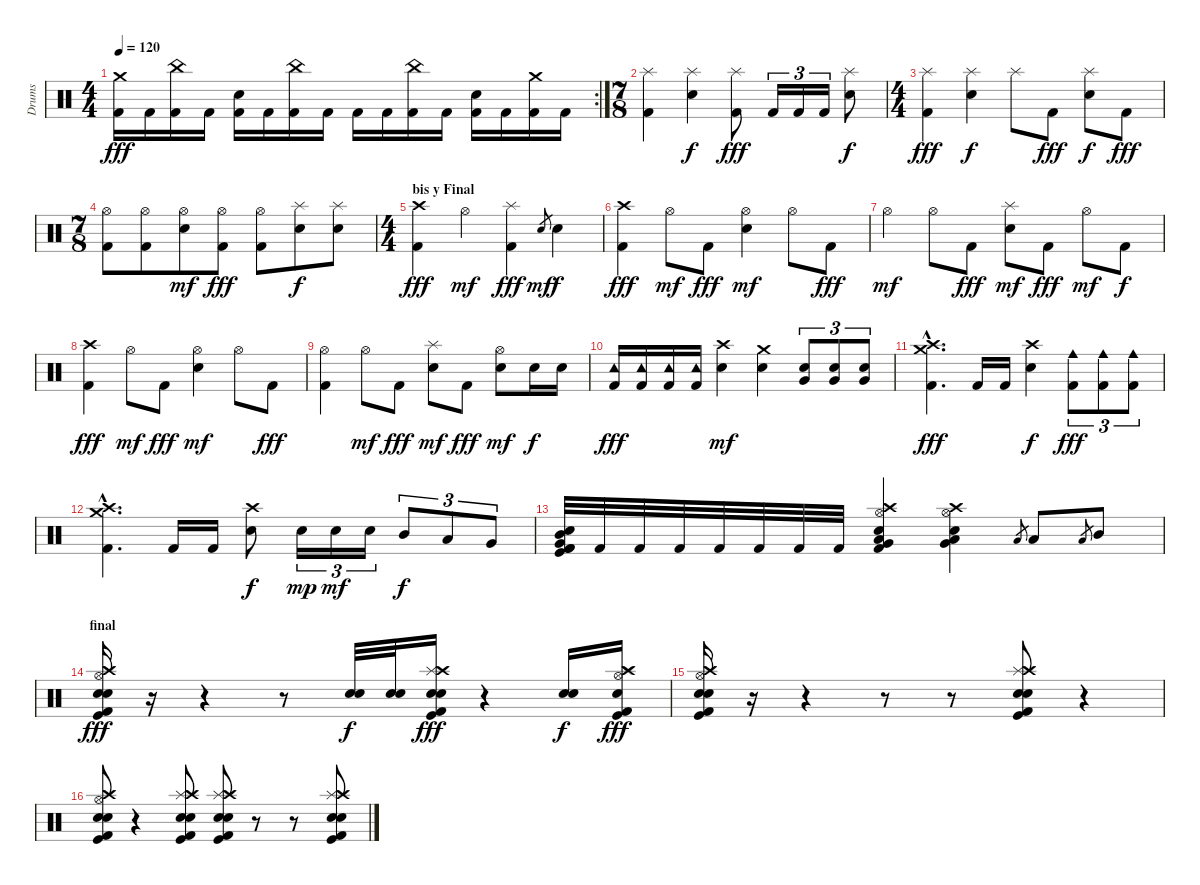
\track ("Drums" "Drums") {instrument percussion}
\staff {score}
\articulation defaults
\rc 2
\ts (4 4)
\tempo 120
\clef neutral
\ks c
("Crash medium (hit)" "Kick (hit) 2").16{dy fff} "Kick (hit) 2".16 ("China (hit)" "Kick (hit) 2").16 "Kick (hit) 2".16 ("Electric Snare (hit)" "Kick (hit) 2").16 "Kick (hit) 2".16 ("China (hit)" "Kick (hit) 2").16 "Kick (hit) 2".16 "Kick (hit) 2".16 "Kick (hit) 2".16 ("China (hit)" "Kick (hit) 2").16 "Kick (hit) 2".16 ("Electric Snare (hit)" "Kick (hit) 2").16 "Kick (hit) 2".16 ("Crash medium (hit)" "Kick (hit) 2").16 "Kick (hit) 2".16 |
\ts (7 8)
("Splash (hit)" "Kick (hit) 2").4 ("Splash (hit)" "Electric Snare (hit)").4{dy f} ("Splash (hit)" "Kick (hit) 2").8{dy fff} "Kick (hit) 2".16{tu (3 2)} "Kick (hit) 2".16{tu (3 2)} "Kick (hit) 2".16{tu (3 2)} ("Splash (hit)" "Electric Snare (hit)").8{dy f} |
\ts (4 4)
("Splash (hit)" "Kick (hit) 2").4{dy fff} ("Splash (hit)" "Electric Snare (hit)").4{dy f} "Splash (hit)".8 "Kick (hit) 2".8{dy fff} ("Splash (hit)" "Electric Snare (hit)").8{dy f} "Kick (hit) 2".8{dy fff} |
\ts (7 8)
("Hi-Hat (open)" "Kick (hit) 2").8 ("Hi-Hat (open)" "Kick (hit) 2").8 ("Hi-Hat (open)" "Electric Snare (hit)").8{dy mf} ("Hi-Hat (open)" "Kick (hit) 2").8{dy fff} ("Hi-Hat (open)" "Kick (hit) 2").8 ("Splash (hit)" "Electric Snare (hit)").8{dy f} ("Splash (hit)" "Electric Snare (hit)").8 |
\ts (4 4)
\section ("" "bis y Final")
("Crash high (hit)" "Kick (hit) 2").4{dy fff} "Hi-Hat (open)".4{dy mf} ("Splash (hit)" "Kick (hit) 2").4{dy fff} "Electric Snare (hit)".8{gr dy mf} "Electric Snare (hit)".4{dy f} |
("Crash high (hit)" "Kick (hit) 2").4{dy fff} "Hi-Hat (open)".8{dy mf} "Kick (hit) 2".8{dy fff} ("Hi-Hat (open)" "Electric Snare (hit)").4{dy mf} "Hi-Hat (open)".8 "Kick (hit) 2".8{dy fff} |
"Hi-Hat (open)".4{dy mf} "Hi-Hat (open)".8 "Kick (hit) 2".8{dy fff} ("Splash (hit)" "Electric Snare (hit)").8{dy mf} "Kick (hit) 2".8{dy fff} "Hi-Hat (open)".8{dy mf} "Kick (hit) 2".8{dy f} |
("Crash high (hit)" "Kick (hit) 2").4{dy fff} "Hi-Hat (open)".8{dy mf} "Kick (hit) 2".8{dy fff} ("Hi-Hat (open)" "Electric Snare (hit)").4{dy mf} "Hi-Hat (open)".8 "Kick (hit) 2".8{dy fff} |
("Hi-Hat (open)" "Kick (hit) 2").4 "Hi-Hat (open)".8{dy mf} "Kick (hit) 2".8{dy fff} ("Splash (hit)" "Electric Snare (hit)").8{dy mf} "Kick (hit) 2".8{dy fff} ("Hi-Hat (open)" "Electric Snare (hit)").8{dy mf} "Electric Snare (hit)".16{dy f} "Electric Snare (hit)".16 |
("Tambourine (hit)" "Kick (hit) 2").16{dy fff} ("Tambourine (hit)" "Kick (hit) 2").16 ("Tambourine (hit)" "Kick (hit) 2").16 ("Tambourine (hit)" "Kick (hit) 2").16 ("Crash high (hit)" "Electric Snare (hit)").4{dy mf} ("Crash medium (hit)" "Electric Snare (hit)").4 ("Electric Snare (hit)" "Very Low Tom (hit)").8{tu (3 2)} ("Electric Snare (hit)" "Very Low Tom (hit)").8{tu (3 2)} ("Electric Snare (hit)" "Very Low Tom (hit)").8{tu (3 2)} |
("Crash medium (hit)"{hac} "Crash high (hit)"{hac} "Kick (hit) 2"{hac}).4{d dy fff} "Kick (hit) 2".16 "Kick (hit) 2".16 ("Crash high (hit)" "Electric Snare (hit)").4{dy f} ("Cowbell medium (hit)" "Kick (hit) 2").8{tu (3 2) dy fff} ("Cowbell medium (hit)" "Kick (hit) 2").8{tu (3 2)} ("Cowbell medium (hit)" "Kick (hit) 2").8{tu (3 2)} |
("Crash medium (hit)"{hac} "Crash high (hit)"{hac} "Kick (hit) 2"{hac}).4{d} "Kick (hit) 2".16 "Kick (hit) 2".16 ("Crash high (hit)" "Electric Snare (hit)").8{dy f} "Electric Snare (hit)".16{tu (3 2) dy mp} "Electric Snare (hit)".16{tu (3 2) dy mf} "Electric Snare (hit)".16{tu (3 2)} "Mid Tom (hit)".8{tu (3 2) dy f} "Low Tom (hit)".8{tu (3 2)} "Very Low Tom (hit)".8{tu (3 2)} |
("Kick (hit) 2" "Kick (hit) 2" "Electric Snare (hit)" "Mid Tom (hit)" "Very Low Tom (hit)" "Kick (hit)").32 "Kick (hit) 2".32 "Kick (hit) 2".32 "Kick (hit) 2".32 "Kick (hit) 2".32 "Kick (hit) 2".32 "Kick (hit) 2".32 "Kick (hit) 2".32 ("Electric Snare (hit)" "Crash high (hit)" "Hi-Hat (open)" "Low Tom (hit)" "Very Low Tom (hit)" "Kick (hit) 2").4 ("Electric Snare (hit)" "Crash high (hit)" "Hi-Hat (open)" "Low Tom (hit)" "Very Low Tom (hit)").4 "Low Floor Tom (hit)".8{gr} "Low Tom (hit)".8 "Low Tom (hit)".8{gr} "Mid Tom (hit)".8 |
\section ("" "final")
("Kick (hit) 2" "Kick (hit)" "Electric Snare (hit)" "Snare (hit) 2" "Hi-Hat (open)" "Crash high (hit)").16{dy fff} r.16 r.4 r.8 ("Electric Snare (hit)" "Snare (hit) 2").32{dy f} ("Electric Snare (hit)" "Snare (hit) 2").32 ("Kick (hit) 2" "Kick (hit)" "Electric Snare (hit)" "Snare (hit) 2" "Splash (hit)" "Crash high (hit)").16{dy fff} r.4 ("Electric Snare (hit)" "Snare (hit) 2").16{dy f} ("Kick (hit) 2" "Kick (hit)" "Electric Snare (hit)" "Hi-Hat (open)" "Splash (hit)" "Crash high (hit)").16{dy fff} |
("Kick (hit) 2" "Kick (hit)" "Electric Snare (hit)" "Snare (hit) 2" "Hi-Hat (open)" "Crash high (hit)").16 r.16 r.4 r.8 r.8 ("Kick (hit) 2" "Kick (hit)" "Electric Snare (hit)" "Snare (hit) 2" "Splash (hit)" "Crash high (hit)").8 r.4 |
("Kick (hit) 2" "Kick (hit)" "Electric Snare (hit)" "Snare (hit) 2" "Hi-Hat (open)" "Crash high (hit)").8 r.4 ("Kick (hit) 2" "Kick (hit)" "Electric Snare (hit)" "Snare (hit) 2" "Splash (hit)" "Crash high (hit)").8 ("Kick (hit) 2" "Kick (hit)" "Electric Snare (hit)" "Snare (hit) 2" "Splash (hit)" "Crash high (hit)").8 r.8 r.8 ("Kick (hit) 2" "Kick (hit)" "Electric Snare (hit)" "Snare (hit) 2" "Splash (hit)" "Crash high (hit)").8
